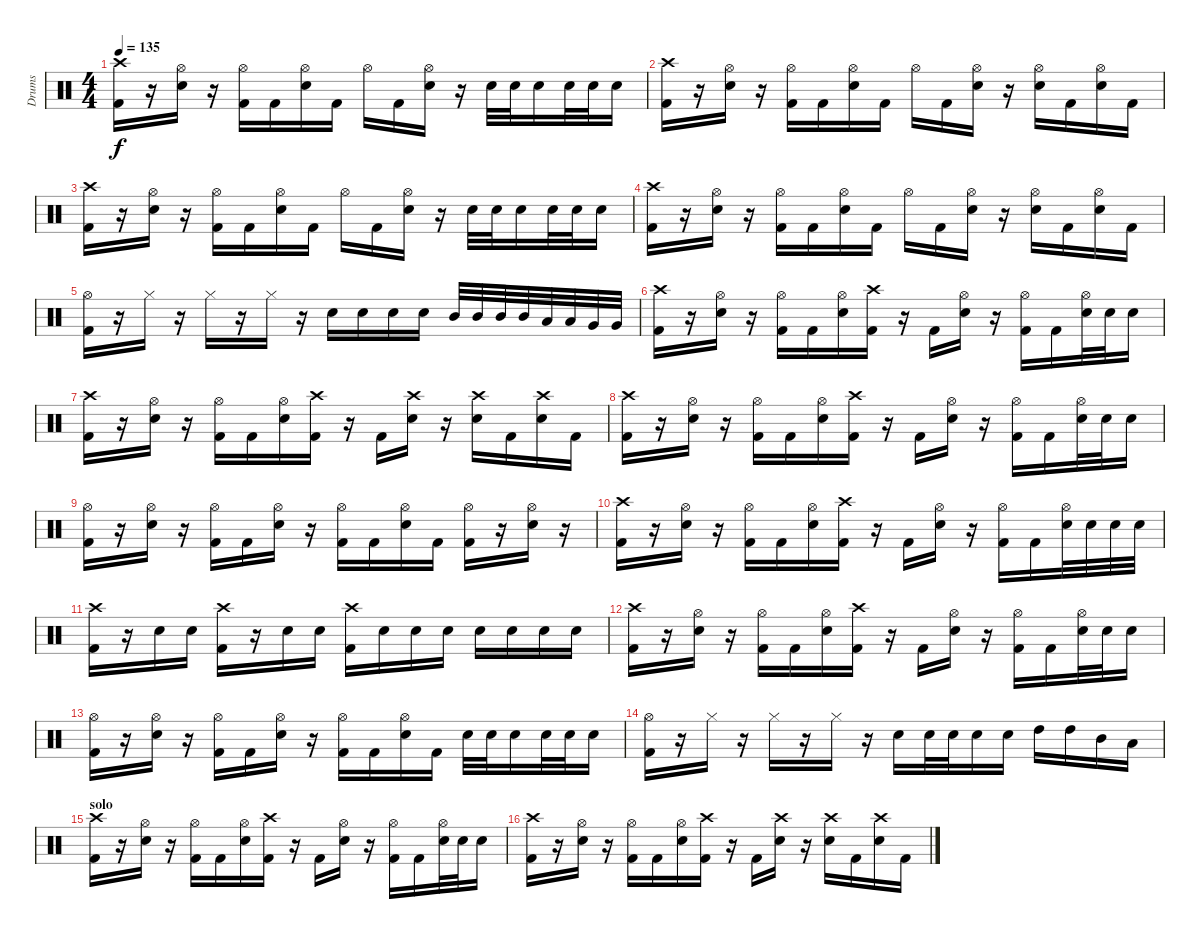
\track ("Drums" "Drums") {instrument percussion}
\staff {score}
\articulation defaults
\ts (4 4)
\tempo 135
\clef neutral
\ks c
("Crash high (hit)" "Kick (hit) 2").16{dy f} r.16 ("Hi-Hat (open)" "Electric Snare (hit)").16 r.16 ("Hi-Hat (open)" "Kick (hit) 2").16 "Kick (hit) 2".16 ("Hi-Hat (open)" "Electric Snare (hit)").16 "Kick (hit) 2".16 "Hi-Hat (open)".16 "Kick (hit) 2".16 ("Hi-Hat (open)" "Electric Snare (hit)").16 r.16 "Electric Snare (hit)".32 "Electric Snare (hit)".32 "Electric Snare (hit)".16 "Electric Snare (hit)".32 "Electric Snare (hit)".32 "Electric Snare (hit)".16 |
("Crash high (hit)" "Kick (hit) 2").16 r.16 ("Hi-Hat (open)" "Electric Snare (hit)").16 r.16 ("Hi-Hat (open)" "Kick (hit) 2").16 "Kick (hit) 2".16 ("Hi-Hat (open)" "Electric Snare (hit)").16 "Kick (hit) 2".16 "Hi-Hat (open)".16 "Kick (hit) 2".16 ("Hi-Hat (open)" "Electric Snare (hit)").16 r.16 ("Hi-Hat (open)" "Electric Snare (hit)").16 "Kick (hit) 2".16 ("Hi-Hat (open)" "Electric Snare (hit)").16 "Kick (hit) 2".16 |
("Crash high (hit)" "Kick (hit) 2").16 r.16 ("Hi-Hat (open)" "Electric Snare (hit)").16 r.16 ("Hi-Hat (open)" "Kick (hit) 2").16 "Kick (hit) 2".16 ("Hi-Hat (open)" "Electric Snare (hit)").16 "Kick (hit) 2".16 "Hi-Hat (open)".16 "Kick (hit) 2".16 ("Hi-Hat (open)" "Electric Snare (hit)").16 r.16 "Electric Snare (hit)".32 "Electric Snare (hit)".32 "Electric Snare (hit)".16 "Electric Snare (hit)".32 "Electric Snare (hit)".32 "Electric Snare (hit)".16 |
("Crash high (hit)" "Kick (hit) 2").16 r.16 ("Hi-Hat (open)" "Electric Snare (hit)").16 r.16 ("Hi-Hat (open)" "Kick (hit) 2").16 "Kick (hit) 2".16 ("Hi-Hat (open)" "Electric Snare (hit)").16 "Kick (hit) 2".16 "Hi-Hat (open)".16 "Kick (hit) 2".16 ("Hi-Hat (open)" "Electric Snare (hit)").16 r.16 ("Hi-Hat (open)" "Electric Snare (hit)").16 "Kick (hit) 2".16 ("Hi-Hat (open)" "Electric Snare (hit)").16 "Kick (hit) 2".16 |
("Hi-Hat (open)" "Kick (hit) 2").16 r.16 "Hi-Hat (closed)".16 r.16 "Hi-Hat (closed)".16 r.16 "Hi-Hat (closed)".16 r.16 "Electric Snare (hit)".16 "Electric Snare (hit)".16 "Electric Snare (hit)".16 "Electric Snare (hit)".16 "Mid Tom (hit)".32 "Mid Tom (hit)".32 "Mid Tom (hit)".32 "Mid Tom (hit)".32 "Low Tom (hit)".32 "Low Tom (hit)".32 "Very Low Tom (hit)".32 "Very Low Tom (hit)".32 |
("Crash high (hit)" "Kick (hit) 2").16 r.16 ("Hi-Hat (open)" "Electric Snare (hit)").16 r.16 ("Hi-Hat (open)" "Kick (hit) 2").16 "Kick (hit) 2".16 ("Hi-Hat (open)" "Electric Snare (hit)").16 ("Crash high (hit)" "Kick (hit) 2").16 r.16 "Kick (hit) 2".16 ("Hi-Hat (open)" "Electric Snare (hit)").16 r.16 ("Hi-Hat (open)" "Kick (hit) 2").16 "Kick (hit) 2".16 ("Hi-Hat (open)" "Electric Snare (hit)").32 "Electric Snare (hit)".32 "Electric Snare (hit)".16 |
("Crash high (hit)" "Kick (hit) 2").16 r.16 ("Hi-Hat (open)" "Electric Snare (hit)").16 r.16 ("Hi-Hat (open)" "Kick (hit) 2").16 "Kick (hit) 2".16 ("Hi-Hat (open)" "Electric Snare (hit)").16 ("Crash high (hit)" "Kick (hit) 2").16 r.16 "Kick (hit) 2".16 ("Crash high (hit)" "Electric Snare (hit)").16 r.16 ("Crash high (hit)" "Electric Snare (hit)").16 "Kick (hit) 2".16 ("Crash high (hit)" "Electric Snare (hit)").16 "Kick (hit) 2".16 |
("Crash high (hit)" "Kick (hit) 2").16 r.16 ("Hi-Hat (open)" "Electric Snare (hit)").16 r.16 ("Hi-Hat (open)" "Kick (hit) 2").16 "Kick (hit) 2".16 ("Hi-Hat (open)" "Electric Snare (hit)").16 ("Crash high (hit)" "Kick (hit) 2").16 r.16 "Kick (hit) 2".16 ("Hi-Hat (open)" "Electric Snare (hit)").16 r.16 ("Hi-Hat (open)" "Kick (hit) 2").16 "Kick (hit) 2".16 ("Hi-Hat (open)" "Electric Snare (hit)").32 "Electric Snare (hit)".32 "Electric Snare (hit)".16 |
("Hi-Hat (open)" "Kick (hit) 2").16 r.16 ("Hi-Hat (open)" "Electric Snare (hit)").16 r.16 ("Hi-Hat (open)" "Kick (hit) 2").16 "Kick (hit) 2".16 ("Hi-Hat (open)" "Electric Snare (hit)").16 r.16 ("Hi-Hat (open)" "Kick (hit) 2").16 "Kick (hit) 2".16 ("Hi-Hat (open)" "Electric Snare (hit)").16 "Kick (hit) 2".16 ("Hi-Hat (open)" "Kick (hit) 2").16 r.16 ("Hi-Hat (open)" "Electric Snare (hit)").16 r.16 |
("Crash high (hit)" "Kick (hit) 2").16 r.16 ("Hi-Hat (open)" "Electric Snare (hit)").16 r.16 ("Hi-Hat (open)" "Kick (hit) 2").16 "Kick (hit) 2".16 ("Hi-Hat (open)" "Electric Snare (hit)").16 ("Crash high (hit)" "Kick (hit) 2").16 r.16 "Kick (hit) 2".16 ("Hi-Hat (open)" "Electric Snare (hit)").16 r.16 ("Hi-Hat (open)" "Kick (hit) 2").16 "Kick (hit) 2".16 ("Hi-Hat (open)" "Electric Snare (hit)").32 "Electric Snare (hit)".32 "Electric Snare (hit)".32 "Electric Snare (hit)".32 |
("Crash high (hit)" "Kick (hit) 2").16 r.16 "Electric Snare (hit)".16 "Electric Snare (hit)".16 ("Crash high (hit)" "Kick (hit) 2").16 r.16 "Electric Snare (hit)".16 "Electric Snare (hit)".16 ("Crash high (hit)" "Kick (hit) 2").16 "Electric Snare (hit)".16 "Electric Snare (hit)".16 "Electric Snare (hit)".16 "Electric Snare (hit)".16 "Electric Snare (hit)".16 "Electric Snare (hit)".16 "Electric Snare (hit)".16 |
("Crash high (hit)" "Kick (hit) 2").16 r.16 ("Hi-Hat (open)" "Electric Snare (hit)").16 r.16 ("Hi-Hat (open)" "Kick (hit) 2").16 "Kick (hit) 2".16 ("Hi-Hat (open)" "Electric Snare (hit)").16 ("Crash high (hit)" "Kick (hit) 2").16 r.16 "Kick (hit) 2".16 ("Hi-Hat (open)" "Electric Snare (hit)").16 r.16 ("Hi-Hat (open)" "Kick (hit) 2").16 "Kick (hit) 2".16 ("Hi-Hat (open)" "Electric Snare (hit)").32 "Electric Snare (hit)".32 "Electric Snare (hit)".16 |
("Hi-Hat (open)" "Kick (hit) 2").16 r.16 ("Hi-Hat (open)" "Electric Snare (hit)").16 r.16 ("Hi-Hat (open)" "Kick (hit) 2").16 "Kick (hit) 2".16 ("Hi-Hat (open)" "Electric Snare (hit)").16 r.16 ("Hi-Hat (open)" "Kick (hit) 2").16 "Kick (hit) 2".16 ("Hi-Hat (open)" "Electric Snare (hit)").16 "Kick (hit) 2".16 "Electric Snare (hit)".32 "Electric Snare (hit)".32 "Electric Snare (hit)".16 "Electric Snare (hit)".32 "Electric Snare (hit)".32 "Electric Snare (hit)".16 |
("Hi-Hat (open)" "Kick (hit) 2").16 r.16 "Hi-Hat (closed)".16 r.16 "Hi-Hat (closed)".16 r.16 "Hi-Hat (closed)".16 r.16 "Electric Snare (hit)".16 "Electric Snare (hit)".32 "Electric Snare (hit)".32 "Electric Snare (hit)".16 "Electric Snare (hit)".16 "High Tom (hit)".16 "High Tom (hit)".16 "Mid Tom (hit)".16 "Low Tom (hit)".16 |
\section ("" "solo")
("Crash high (hit)" "Kick (hit) 2").16 r.16 ("Hi-Hat (open)" "Electric Snare (hit)").16 r.16 ("Hi-Hat (open)" "Kick (hit) 2").16 "Kick (hit) 2".16 ("Hi-Hat (open)" "Electric Snare (hit)").16 ("Crash high (hit)" "Kick (hit) 2").16 r.16 "Kick (hit) 2".16 ("Hi-Hat (open)" "Electric Snare (hit)").16 r.16 ("Hi-Hat (open)" "Kick (hit) 2").16 "Kick (hit) 2".16 ("Hi-Hat (open)" "Electric Snare (hit)").32 "Electric Snare (hit)".32 "Electric Snare (hit)".16 |
("Crash high (hit)" "Kick (hit) 2").16 r.16 ("Hi-Hat (open)" "Electric Snare (hit)").16 r.16 ("Hi-Hat (open)" "Kick (hit) 2").16 "Kick (hit) 2".16 ("Hi-Hat (open)" "Electric Snare (hit)").16 ("Crash high (hit)" "Kick (hit) 2").16 r.16 "Kick (hit) 2".16 ("Crash high (hit)" "Electric Snare (hit)").16 r.16 ("Crash high (hit)" "Electric Snare (hit)").16 "Kick (hit) 2".16 ("Crash high (hit)" "Electric Snare (hit)").16 "Kick (hit) 2".16
